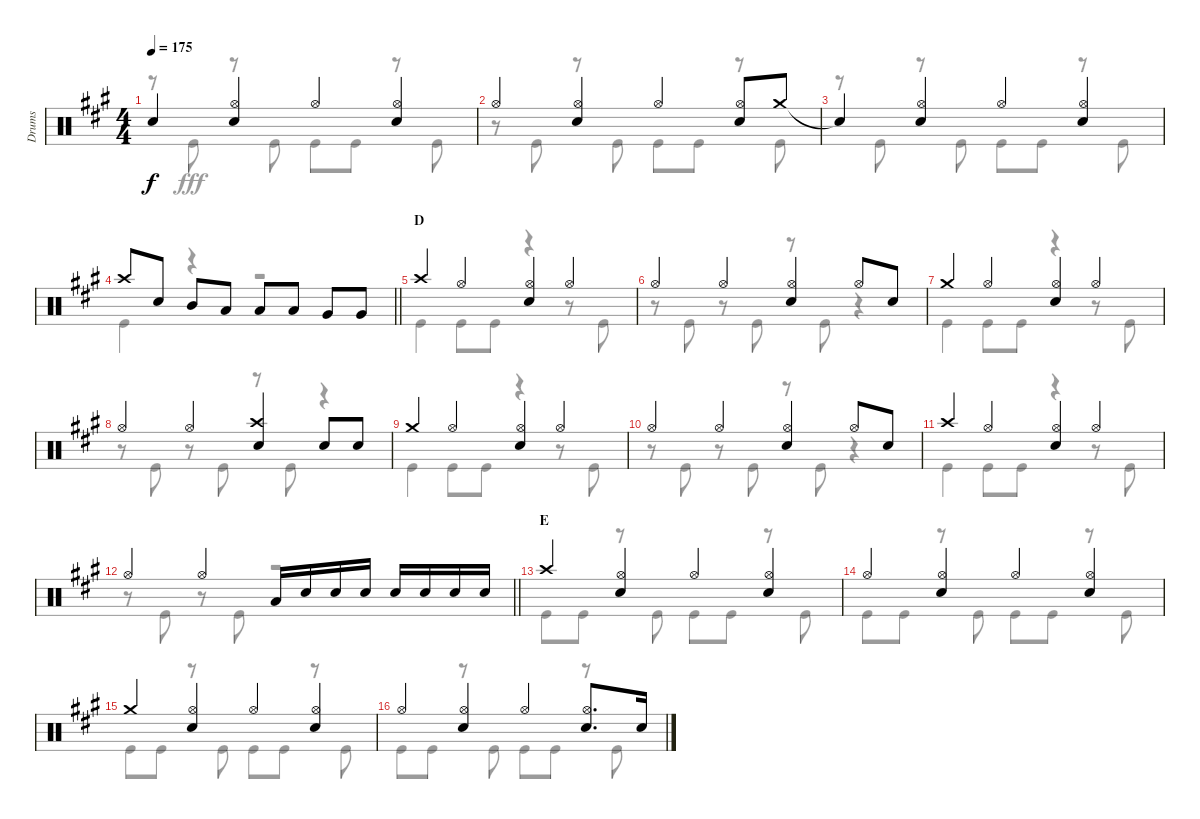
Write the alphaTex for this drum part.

\track ("Drums" "Drums") {instrument percussion}
\staff {score}
\articulation defaults
\voice
\ts (4 4)
\tempo 175
\clef neutral
\ks a "Snare (hit)"{t}.4{dy f}
("Hi-Hat (open)" "Snare (hit) 2").4 "Hi-Hat (open)".4 ("Hi-Hat (open)" "Snare (hit) 2").4 |
"Hi-Hat (open)".4 ("Hi-Hat (open)" "Snare (hit) 2").4 "Hi-Hat (open)".4 ("Hi-Hat (open)" "Snare (hit) 2").8 "Crash medium (hit)".8 |
"Snare (hit)"{t}.4 ("Hi-Hat (open)" "Snare (hit) 2").4 "Hi-Hat (open)".4 ("Hi-Hat (open)" "Snare (hit) 2").4 |
\barLineRight lightlight "Crash high (hit)".8 "Snare (hit) 2".8 "Mid Tom (hit)".8 "Low Tom (hit)".8 "Low Tom (hit)".8 "Low Tom (hit)".8 "Very Low Tom (hit)".8 "Very Low Tom (hit)".8
|
\section ("" "D")
"Crash high (hit)".4 "Hi-Hat (open)".4 ("Hi-Hat (open)" "Snare (hit) 2").4 "Hi-Hat (open)".4 |
"Hi-Hat (open)".4 "Hi-Hat (open)".4 ("Hi-Hat (open)" "Snare (hit) 2").4 "Hi-Hat (open)".8 "Snare (hit) 2".8 |
"Crash medium (hit)".4 "Hi-Hat (open)".4 ("Hi-Hat (open)" "Snare (hit) 2").4 "Hi-Hat (open)".4 |
"Hi-Hat (open)".4 "Hi-Hat (open)".4 ("Crash high (hit)" "Snare (hit) 2").4 "Snare (hit) 2".8 "Snare (hit) 2".8 |
"Crash medium (hit)".4 "Hi-Hat (open)".4 ("Hi-Hat (open)" "Snare (hit) 2").4 "Hi-Hat (open)".4 |
"Hi-Hat (open)".4 "Hi-Hat (open)".4 ("Hi-Hat (open)" "Snare (hit) 2").4 "Hi-Hat (open)".8 "Snare (hit) 2".8 |
"Crash high (hit)".4 "Hi-Hat (open)".4 ("Hi-Hat (open)" "Snare (hit) 2").4 "Hi-Hat (open)".4 |
\barLineRight lightlight "Hi-Hat (open)".4 "Hi-Hat (open)".4 "Low Tom (hit)".16 "Snare (hit) 2".16 "Snare (hit) 2".16 "Snare (hit) 2".16 "Snare (hit) 2".16 "Snare (hit) 2".16 "Snare (hit) 2".16 "Snare (hit) 2".16
|
\section ("" "E")
"Crash high (hit)".4 ("Hi-Hat (open)" "Snare (hit) 2").4 "Hi-Hat (open)".4 ("Hi-Hat (open)" "Snare (hit) 2").4 |
"Hi-Hat (open)".4 ("Hi-Hat (open)" "Snare (hit) 2").4 "Hi-Hat (open)".4 ("Hi-Hat (open)" "Snare (hit) 2").4 |
"Crash medium (hit)".4 ("Hi-Hat (open)" "Snare (hit) 2").4 "Hi-Hat (open)".4 ("Hi-Hat (open)" "Snare (hit) 2").4 |
"Hi-Hat (open)".4 ("Hi-Hat (open)" "Snare (hit) 2").4 "Hi-Hat (open)".4 ("Hi-Hat (open)" "Snare (hit) 2").8{d} "Snare (hit) 2".16
\voice
\clef neutral
\ottava regular
\simile none
\ks a
r.8{dy fff} "Kick (hit)".8 r.8 "Kick (hit)".8 "Kick (hit)".8 "Kick (hit)".8 r.8 "Kick (hit)".8 |
r.8 "Kick (hit)".8 r.8 "Kick (hit)".8 "Kick (hit)".8 "Kick (hit)".8 r.8 "Kick (hit)".8 |
r.8 "Kick (hit)".8 r.8 "Kick (hit)".8 "Kick (hit)".8 "Kick (hit)".8 r.8 "Kick (hit)".8 |
\barLineRight lightlight "Kick (hit)".4
r.4 r.2 |
"Kick (hit)".4 "Kick (hit)".8 "Kick (hit)".8 r.4 r.8 "Kick (hit)".8 |
r.8 "Kick (hit)".8 r.8 "Kick (hit)".8 r.8 "Kick (hit)".8 r.4 |
"Kick (hit)".4 "Kick (hit)".8 "Kick (hit)".8 r.4 r.8 "Kick (hit)".8 |
r.8 "Kick (hit)".8 r.8 "Kick (hit)".8 r.8 "Kick (hit)".8 r.4 |
"Kick (hit)".4 "Kick (hit)".8 "Kick (hit)".8 r.4 r.8 "Kick (hit)".8 |
r.8 "Kick (hit)".8 r.8 "Kick (hit)".8 r.8 "Kick (hit)".8 r.4 |
"Kick (hit)".4 "Kick (hit)".8 "Kick (hit)".8 r.4 r.8 "Kick (hit)".8 |
\barLineRight lightlight
r.8 "Kick (hit)".8 r.8 "Kick (hit)".8 r.2 |
"Kick (hit)".8 "Kick (hit)".8 r.8 "Kick (hit)".8 "Kick (hit)".8 "Kick (hit)".8 r.8 "Kick (hit)".8 |
"Kick (hit)".8 "Kick (hit)".8 r.8 "Kick (hit)".8 "Kick (hit)".8 "Kick (hit)".8 r.8 "Kick (hit)".8 |
"Kick (hit)".8 "Kick (hit)".8 r.8 "Kick (hit)".8 "Kick (hit)".8 "Kick (hit)".8 r.8 "Kick (hit)".8 |
"Kick (hit)".8 "Kick (hit)".8 r.8 "Kick (hit)".8 "Kick (hit)".8 "Kick (hit)".8 r.8 "Kick (hit)".8
